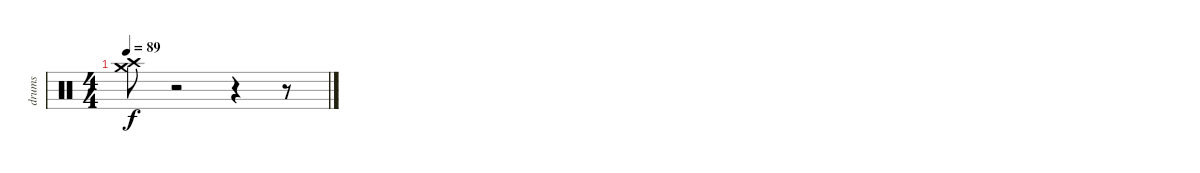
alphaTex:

\track ("drums" "drums") {instrument percussion}
\staff {score}
\articulation defaults
\ts (4 4)
\tempo 89
\clef neutral
\ks c
("Crash medium (hit)" "Crash high (hit)").8{dy f} r.2 r.4 r.8
